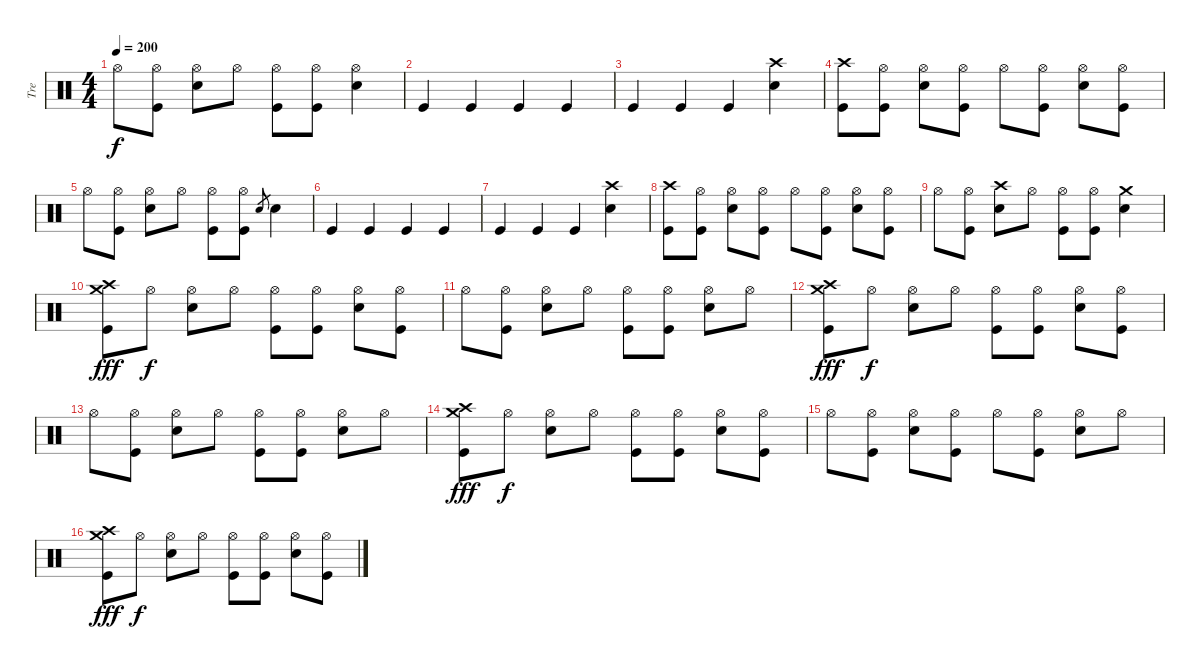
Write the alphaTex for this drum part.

\track ("Tre" "Tre") {instrument percussion}
\staff {score}
\articulation defaults
\ts (4 4)
\tempo 200
\clef neutral
\ks c "Hi-Hat (open)".8{dy f}
("Hi-Hat (open)" "Kick (hit)").8 ("Hi-Hat (open)" "Snare (hit) 2").8 "Hi-Hat (open)".8 ("Hi-Hat (open)" "Kick (hit)").8 ("Hi-Hat (open)" "Kick (hit)").8 ("Hi-Hat (open)" "Snare (hit) 2").4 |
"Kick (hit)".4 "Kick (hit)".4 "Kick (hit)".4 "Kick (hit)".4 |
"Kick (hit)".4 "Kick (hit)".4 "Kick (hit)".4 ("Snare (hit) 2" "Crash high (hit)").4 |
("Crash high (hit)" "Kick (hit)").8 ("Hi-Hat (open)" "Kick (hit)").8 ("Hi-Hat (open)" "Snare (hit) 2").8 ("Hi-Hat (open)" "Kick (hit)").8 "Hi-Hat (open)".8 ("Hi-Hat (open)" "Kick (hit)").8 ("Hi-Hat (open)" "Snare (hit) 2").8 ("Hi-Hat (open)" "Kick (hit)").8 |
"Hi-Hat (open)".8 ("Hi-Hat (open)" "Kick (hit)").8 ("Hi-Hat (open)" "Snare (hit) 2").8 "Hi-Hat (open)".8 ("Hi-Hat (open)" "Kick (hit)").8 ("Hi-Hat (open)" "Kick (hit)").8 "Snare (hit) 2".8{gr} "Snare (hit) 2".4 |
"Kick (hit)".4 "Kick (hit)".4 "Kick (hit)".4 "Kick (hit)".4 |
"Kick (hit)".4 "Kick (hit)".4 "Kick (hit)".4 ("Snare (hit) 2" "Crash high (hit)").4 |
("Crash high (hit)" "Kick (hit)").8 ("Hi-Hat (open)" "Kick (hit)").8 ("Hi-Hat (open)" "Snare (hit) 2").8 ("Hi-Hat (open)" "Kick (hit)").8 "Hi-Hat (open)".8 ("Hi-Hat (open)" "Kick (hit)").8 ("Hi-Hat (open)" "Snare (hit) 2").8 ("Hi-Hat (open)" "Kick (hit)").8 |
"Hi-Hat (open)".8 ("Hi-Hat (open)" "Kick (hit)").8 ("Crash high (hit)" "Snare (hit) 2").8 "Hi-Hat (open)".8 ("Hi-Hat (open)" "Kick (hit)").8 ("Hi-Hat (open)" "Kick (hit)").8 ("Crash medium (hit)" "Snare (hit) 2").4 |
("Crash medium (hit)" "Kick (hit)" "Crash high (hit)").8{dy fff} "Hi-Hat (open)".8{dy f} ("Hi-Hat (open)" "Snare (hit) 2").8 "Hi-Hat (open)".8 ("Hi-Hat (open)" "Kick (hit)").8 ("Hi-Hat (open)" "Kick (hit)").8 ("Hi-Hat (open)" "Snare (hit) 2").8 ("Hi-Hat (open)" "Kick (hit)").8 |
"Hi-Hat (open)".8 ("Hi-Hat (open)" "Kick (hit)").8 ("Hi-Hat (open)" "Snare (hit) 2").8 "Hi-Hat (open)".8 ("Hi-Hat (open)" "Kick (hit)").8 ("Hi-Hat (open)" "Kick (hit)").8 ("Hi-Hat (open)" "Snare (hit) 2").8 "Hi-Hat (open)".8 |
("Crash medium (hit)" "Kick (hit)" "Crash high (hit)").8{dy fff} "Hi-Hat (open)".8{dy f} ("Hi-Hat (open)" "Snare (hit) 2").8 "Hi-Hat (open)".8 ("Hi-Hat (open)" "Kick (hit)").8 ("Hi-Hat (open)" "Kick (hit)").8 ("Hi-Hat (open)" "Snare (hit) 2").8 ("Hi-Hat (open)" "Kick (hit)").8 |
"Hi-Hat (open)".8 ("Hi-Hat (open)" "Kick (hit)").8 ("Hi-Hat (open)" "Snare (hit) 2").8 "Hi-Hat (open)".8 ("Hi-Hat (open)" "Kick (hit)").8 ("Hi-Hat (open)" "Kick (hit)").8 ("Hi-Hat (open)" "Snare (hit) 2").8 "Hi-Hat (open)".8 |
("Crash medium (hit)" "Kick (hit)" "Crash high (hit)").8{dy fff} "Hi-Hat (open)".8{dy f} ("Hi-Hat (open)" "Snare (hit) 2").8 "Hi-Hat (open)".8 ("Hi-Hat (open)" "Kick (hit)").8 ("Hi-Hat (open)" "Kick (hit)").8 ("Hi-Hat (open)" "Snare (hit) 2").8 ("Hi-Hat (open)" "Kick (hit)").8 |
"Hi-Hat (open)".8 ("Hi-Hat (open)" "Kick (hit)").8 ("Hi-Hat (open)" "Snare (hit) 2").8 ("Hi-Hat (open)" "Kick (hit)").8 "Hi-Hat (open)".8 ("Hi-Hat (open)" "Kick (hit)").8 ("Hi-Hat (open)" "Snare (hit) 2").8 "Hi-Hat (open)".8 |
("Crash medium (hit)" "Kick (hit)" "Crash high (hit)").8{dy fff} "Hi-Hat (open)".8{dy f} ("Hi-Hat (open)" "Snare (hit) 2").8 "Hi-Hat (open)".8 ("Hi-Hat (open)" "Kick (hit)").8 ("Hi-Hat (open)" "Kick (hit)").8 ("Hi-Hat (open)" "Snare (hit) 2").8 ("Hi-Hat (open)" "Kick (hit)").8
